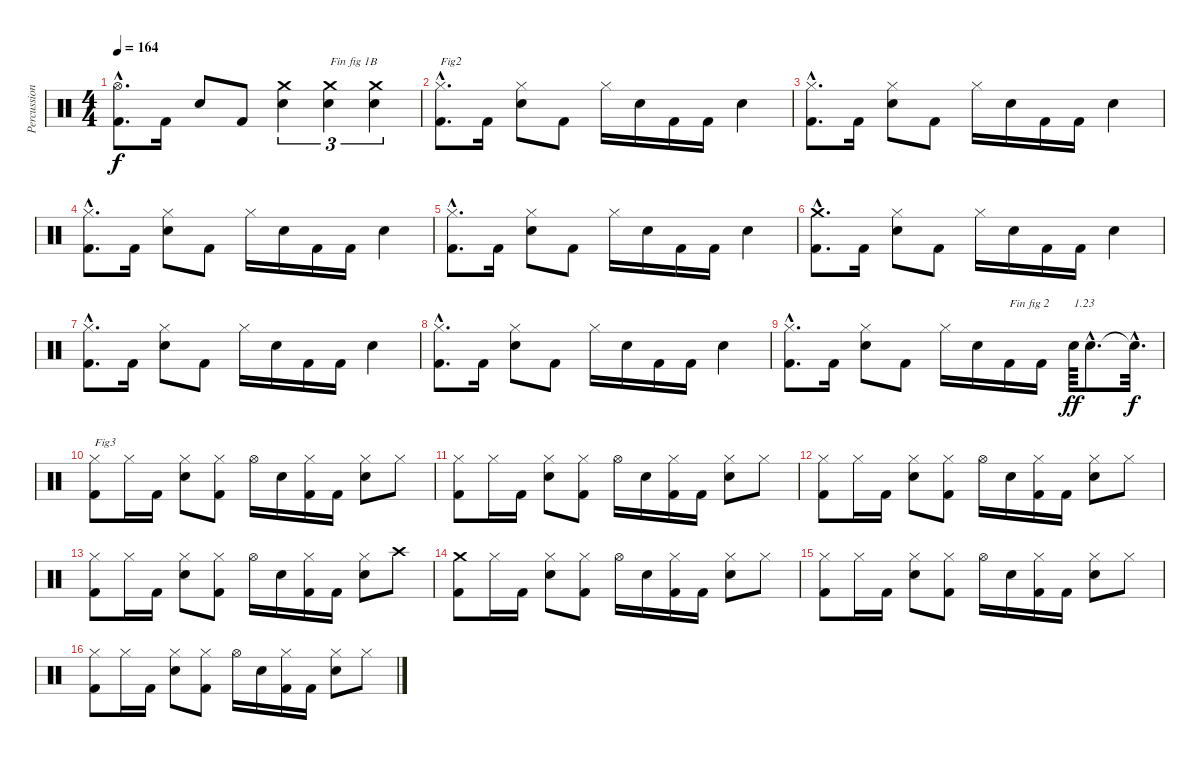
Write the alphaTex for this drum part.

\track ("Percussions" "Percussion") {instrument percussion}
\staff {score}
\articulation defaults
\ts (4 4)
\tempo 164
\clef neutral
\ks c
("Kick (hit) 2"{hac} "Hi-Hat (open)"{hac}).8{d dy f} "Kick (hit) 2".16 "Electric Snare (hit)".8 "Kick (hit) 2".8 ("Electric Snare (hit)" "Crash medium (hit)").4{tu (3 2)} ("Electric Snare (hit)" "Crash medium (hit)").4{tu (3 2) txt "Fin fig 1B"} ("Electric Snare (hit)" "Crash medium (hit)").4{tu (3 2)} |
("Kick (hit) 2"{hac} "Hi-Hat (closed)"{hac}).8{d txt "Fig2"} "Kick (hit) 2".16 ("Electric Snare (hit)" "Hi-Hat (closed)").8 "Kick (hit) 2".8 "Hi-Hat (closed)".16 "Electric Snare (hit)".16 "Kick (hit) 2".16 "Kick (hit) 2".16 "Electric Snare (hit)".4 |
("Kick (hit) 2"{hac} "Hi-Hat (closed)"{hac}).8{d} "Kick (hit) 2".16 ("Electric Snare (hit)" "Hi-Hat (closed)").8 "Kick (hit) 2".8 "Hi-Hat (closed)".16 "Electric Snare (hit)".16 "Kick (hit) 2".16 "Kick (hit) 2".16 "Electric Snare (hit)".4 |
("Kick (hit) 2"{hac} "Hi-Hat (closed)"{hac}).8{d} "Kick (hit) 2".16 ("Electric Snare (hit)" "Hi-Hat (closed)").8 "Kick (hit) 2".8 "Hi-Hat (closed)".16 "Electric Snare (hit)".16 "Kick (hit) 2".16 "Kick (hit) 2".16 "Electric Snare (hit)".4 |
("Kick (hit) 2"{hac} "Hi-Hat (closed)"{hac}).8{d} "Kick (hit) 2".16 ("Electric Snare (hit)" "Hi-Hat (closed)").8 "Kick (hit) 2".8 "Hi-Hat (closed)".16 "Electric Snare (hit)".16 "Kick (hit) 2".16 "Kick (hit) 2".16 "Electric Snare (hit)".4 |
("Kick (hit) 2"{hac} "Crash medium (hit)"{hac}).8{d} "Kick (hit) 2".16 ("Electric Snare (hit)" "Hi-Hat (closed)").8 "Kick (hit) 2".8 "Hi-Hat (closed)".16 "Electric Snare (hit)".16 "Kick (hit) 2".16 "Kick (hit) 2".16 "Electric Snare (hit)".4 |
("Kick (hit) 2"{hac} "Hi-Hat (closed)"{hac}).8{d} "Kick (hit) 2".16 ("Electric Snare (hit)" "Hi-Hat (closed)").8 "Kick (hit) 2".8 "Hi-Hat (closed)".16 "Electric Snare (hit)".16 "Kick (hit) 2".16 "Kick (hit) 2".16 "Electric Snare (hit)".4 |
("Kick (hit) 2"{hac} "Hi-Hat (closed)"{hac}).8{d} "Kick (hit) 2".16 ("Electric Snare (hit)" "Hi-Hat (closed)").8 "Kick (hit) 2".8 "Hi-Hat (closed)".16 "Electric Snare (hit)".16 "Kick (hit) 2".16 "Kick (hit) 2".16 "Electric Snare (hit)".4 |
("Kick (hit) 2"{hac} "Hi-Hat (closed)"{hac}).8{d} "Kick (hit) 2".16 ("Electric Snare (hit)" "Hi-Hat (closed)").8 "Kick (hit) 2".8 "Hi-Hat (closed)".16 "Electric Snare (hit)".16 "Kick (hit) 2".16{txt "Fin fig 2"} "Kick (hit) 2".16 "Electric Snare (hit)".64{txt "1.23" dy ff} "Electric Snare (hit)"{hac}.8{d} "Snare (hit)"{hac t}.32{d dy f} |
("Kick (hit) 2" "Hi-Hat (closed)").8{txt "Fig3"} "Hi-Hat (closed)".16 "Kick (hit) 2".16 ("Electric Snare (hit)" "Hi-Hat (closed)").8 ("Kick (hit) 2" "Hi-Hat (closed)").8 "Hi-Hat (open)".16 "Electric Snare (hit)".16 ("Kick (hit) 2" "Hi-Hat (closed)").16 "Kick (hit) 2".16 ("Electric Snare (hit)" "Hi-Hat (closed)").8 "Hi-Hat (closed)".8 |
("Kick (hit) 2" "Hi-Hat (closed)").8 "Hi-Hat (closed)".16 "Kick (hit) 2".16 ("Electric Snare (hit)" "Hi-Hat (closed)").8 ("Kick (hit) 2" "Hi-Hat (closed)").8 "Hi-Hat (open)".16 "Electric Snare (hit)".16 ("Kick (hit) 2" "Hi-Hat (closed)").16 "Kick (hit) 2".16 ("Electric Snare (hit)" "Hi-Hat (closed)").8 "Hi-Hat (closed)".8 |
("Kick (hit) 2" "Hi-Hat (closed)").8 "Hi-Hat (closed)".16 "Kick (hit) 2".16 ("Electric Snare (hit)" "Hi-Hat (closed)").8 ("Kick (hit) 2" "Hi-Hat (closed)").8 "Hi-Hat (open)".16 "Electric Snare (hit)".16 ("Kick (hit) 2" "Hi-Hat (closed)").16 "Kick (hit) 2".16 ("Electric Snare (hit)" "Hi-Hat (closed)").8 "Hi-Hat (closed)".8 |
("Kick (hit) 2" "Hi-Hat (closed)").8 "Hi-Hat (closed)".16 "Kick (hit) 2".16 ("Electric Snare (hit)" "Hi-Hat (closed)").8 ("Kick (hit) 2" "Hi-Hat (closed)").8 "Hi-Hat (open)".16 "Electric Snare (hit)".16 ("Kick (hit) 2" "Hi-Hat (closed)").16 "Kick (hit) 2".16 ("Electric Snare (hit)" "Hi-Hat (closed)").8 "Crash high (hit)".8 |
("Kick (hit) 2" "Crash medium (hit)").8 "Hi-Hat (closed)".16 "Kick (hit) 2".16 ("Electric Snare (hit)" "Hi-Hat (closed)").8 ("Kick (hit) 2" "Hi-Hat (closed)").8 "Hi-Hat (open)".16 "Electric Snare (hit)".16 ("Kick (hit) 2" "Hi-Hat (closed)").16 "Kick (hit) 2".16 ("Electric Snare (hit)" "Hi-Hat (closed)").8 "Hi-Hat (closed)".8 |
("Kick (hit) 2" "Hi-Hat (closed)").8 "Hi-Hat (closed)".16 "Kick (hit) 2".16 ("Electric Snare (hit)" "Hi-Hat (closed)").8 ("Kick (hit) 2" "Hi-Hat (closed)").8 "Hi-Hat (open)".16 "Electric Snare (hit)".16 ("Kick (hit) 2" "Hi-Hat (closed)").16 "Kick (hit) 2".16 ("Electric Snare (hit)" "Hi-Hat (closed)").8 "Hi-Hat (closed)".8 |
("Kick (hit) 2" "Hi-Hat (closed)").8 "Hi-Hat (closed)".16 "Kick (hit) 2".16 ("Electric Snare (hit)" "Hi-Hat (closed)").8 ("Kick (hit) 2" "Hi-Hat (closed)").8 "Hi-Hat (open)".16 "Electric Snare (hit)".16 ("Kick (hit) 2" "Hi-Hat (closed)").16 "Kick (hit) 2".16 ("Electric Snare (hit)" "Hi-Hat (closed)").8 "Hi-Hat (closed)".8
